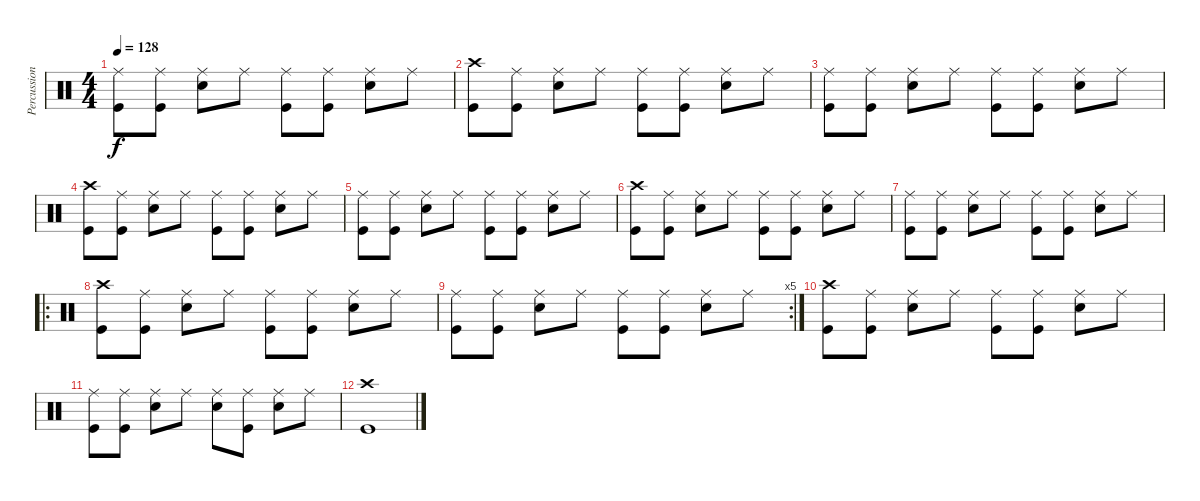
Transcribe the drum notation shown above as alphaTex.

\track ("Percussion" "Percussion") {instrument percussion}
\staff {score}
\articulation defaults
\ts (4 4)
\tempo 128
\clef neutral
\ks c
("Ride (middle)" "Kick (hit)").8{dy f} ("Ride (middle)" "Kick (hit)").8 ("Ride (middle)" "Snare (hit) 2").8 "Ride (middle)".8 ("Ride (middle)" "Kick (hit)").8 ("Ride (middle)" "Kick (hit)").8 ("Ride (middle)" "Snare (hit) 2").8 "Ride (middle)".8 |
("Crash high (hit)" "Kick (hit)").8 ("Ride (middle)" "Kick (hit)").8 ("Ride (middle)" "Snare (hit) 2").8 "Ride (middle)".8 ("Ride (middle)" "Kick (hit)").8 ("Ride (middle)" "Kick (hit)").8 ("Ride (middle)" "Snare (hit) 2").8 "Ride (middle)".8 |
("Ride (middle)" "Kick (hit)").8 ("Ride (middle)" "Kick (hit)").8 ("Ride (middle)" "Snare (hit) 2").8 "Ride (middle)".8 ("Ride (middle)" "Kick (hit)").8 ("Ride (middle)" "Kick (hit)").8 ("Ride (middle)" "Snare (hit) 2").8 "Ride (middle)".8 |
("Crash high (hit)" "Kick (hit)").8 ("Ride (middle)" "Kick (hit)").8 ("Ride (middle)" "Snare (hit) 2").8 "Ride (middle)".8 ("Ride (middle)" "Kick (hit)").8 ("Ride (middle)" "Kick (hit)").8 ("Ride (middle)" "Snare (hit) 2").8 "Ride (middle)".8 |
("Ride (middle)" "Kick (hit)").8 ("Ride (middle)" "Kick (hit)").8 ("Ride (middle)" "Snare (hit) 2").8 "Ride (middle)".8 ("Ride (middle)" "Kick (hit)").8 ("Ride (middle)" "Kick (hit)").8 ("Ride (middle)" "Snare (hit) 2").8 "Ride (middle)".8 |
("Crash high (hit)" "Kick (hit)").8 ("Ride (middle)" "Kick (hit)").8 ("Ride (middle)" "Snare (hit) 2").8 "Ride (middle)".8 ("Ride (middle)" "Kick (hit)").8 ("Ride (middle)" "Kick (hit)").8 ("Ride (middle)" "Snare (hit) 2").8 "Ride (middle)".8 |
("Ride (middle)" "Kick (hit)").8 ("Ride (middle)" "Kick (hit)").8 ("Ride (middle)" "Snare (hit) 2").8 "Ride (middle)".8 ("Ride (middle)" "Kick (hit)").8 ("Ride (middle)" "Kick (hit)").8 ("Ride (middle)" "Snare (hit) 2").8 "Ride (middle)".8 |
\ro
("Crash high (hit)" "Kick (hit)").8 ("Ride (middle)" "Kick (hit)").8 ("Ride (middle)" "Snare (hit) 2").8 "Ride (middle)".8 ("Ride (middle)" "Kick (hit)").8 ("Ride (middle)" "Kick (hit)").8 ("Ride (middle)" "Snare (hit) 2").8 "Ride (middle)".8 |
\rc 5
("Ride (middle)" "Kick (hit)").8 ("Ride (middle)" "Kick (hit)").8 ("Ride (middle)" "Snare (hit) 2").8 "Ride (middle)".8 ("Ride (middle)" "Kick (hit)").8 ("Ride (middle)" "Kick (hit)").8 ("Ride (middle)" "Snare (hit) 2").8 "Ride (middle)".8 |
("Crash high (hit)" "Kick (hit)").8 ("Ride (middle)" "Kick (hit)").8 ("Ride (middle)" "Snare (hit) 2").8 "Ride (middle)".8 ("Ride (middle)" "Kick (hit)").8 ("Ride (middle)" "Kick (hit)").8 ("Ride (middle)" "Snare (hit) 2").8 "Ride (middle)".8 |
("Ride (middle)" "Kick (hit)").8 ("Ride (middle)" "Kick (hit)").8 ("Ride (middle)" "Snare (hit) 2").8 "Ride (middle)".8 ("Ride (middle)" "Snare (hit) 2").8 ("Ride (middle)" "Kick (hit)").8 ("Ride (middle)" "Snare (hit) 2").8 "Ride (middle)".8 |
("Crash high (hit)" "Kick (hit)").1
